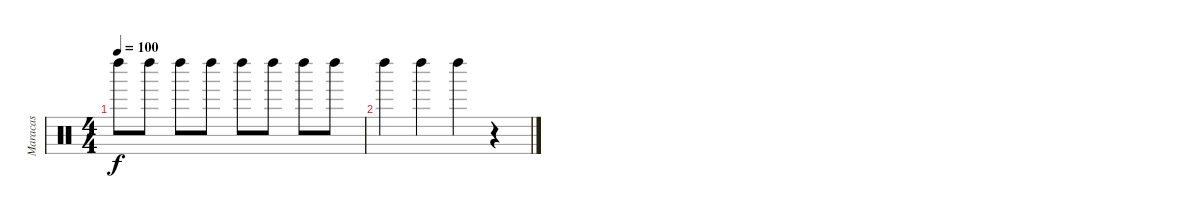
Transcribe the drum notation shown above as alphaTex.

\track ("Maracas" "Maracas") {instrument percussion}
\staff {score}
\articulation defaults
\ts (4 4)
\tempo 100
\clef neutral
\ks c "Left Maraca (hit)".8{dy f} "Left Maraca (hit)".8 "Left Maraca (hit)".8 "Left Maraca (hit)".8 "Left Maraca (hit)".8 "Left Maraca (hit)".8 "Left Maraca (hit)".8 "Left Maraca (hit)".8
|
"Left Maraca (hit)".4 "Left Maraca (hit)".4 "Left Maraca (hit)".4 r.4
